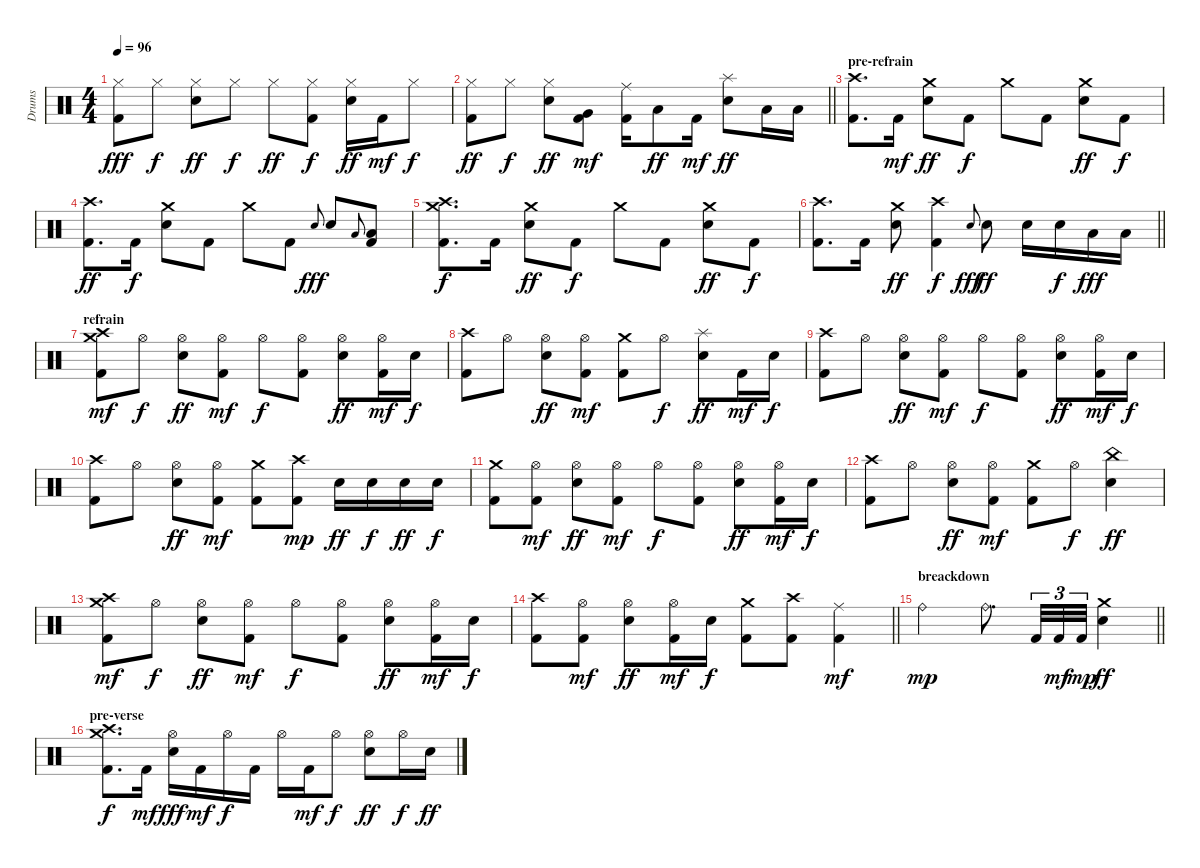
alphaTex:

\track ("Drums" "Drums") {instrument percussion}
\staff {score}
\articulation defaults
\ts (4 4)
\tempo 96
\clef neutral
\ks c
("Hi-Hat (closed)" "Kick (hit) 2").8{dy fff} "Hi-Hat (closed)".8{dy f} ("Hi-Hat (closed)" "Electric Snare (hit)").8{dy ff} "Hi-Hat (closed)".8{dy f} "Hi-Hat (closed)".8{dy ff} ("Hi-Hat (closed)" "Kick (hit) 2").8{dy f} ("Hi-Hat (closed)" "Electric Snare (hit)").16{dy ff} "Kick (hit) 2".16{dy mf} "Hi-Hat (closed)".8{dy f} |
\barLineRight lightlight
("Hi-Hat (closed)" "Kick (hit) 2").8{dy ff} "Hi-Hat (closed)".8{dy f} ("Hi-Hat (closed)" "Electric Snare (hit)").8{dy ff} ("Very Low Tom (hit)" "Kick (hit) 2").8{dy mf} ("Ride (middle)" "Kick (hit) 2").16 "Low Tom (hit)".8{dy ff} "Kick (hit) 2".16{dy mf} ("Splash (hit)" "Electric Snare (hit)").8{dy ff} "Low Tom (hit)".16 "Low Tom (hit)".16 |
\section ("" "pre-refrain")
("Crash high (hit)" "Kick (hit) 2").8{d} "Kick (hit) 2".16{dy mf} ("Crash medium (hit)" "Electric Snare (hit)").8{dy ff} "Kick (hit) 2".8{dy f} "Crash medium (hit)".8 "Kick (hit) 2".8 ("Crash medium (hit)" "Electric Snare (hit)").8{dy ff} "Kick (hit) 2".8{dy f} |
("Crash high (hit)" "Kick (hit) 2").8{d dy ff} "Kick (hit) 2".16{dy f} ("Crash medium (hit)" "Electric Snare (hit)").8 "Kick (hit) 2".8 "Crash medium (hit)".8 "Kick (hit) 2".8 "Snare (hit) 2"{x}.8{gr onbeat dy fff} "Electric Snare (hit)".8 "Low Tom (hit)".8{gr onbeat} ("Low Tom (hit)" "Kick (hit) 2").8 |
("Crash medium (hit)" "Crash high (hit)" "Kick (hit) 2").8{d dy f} "Kick (hit) 2".16 ("Crash medium (hit)" "Electric Snare (hit)").8{dy ff} "Kick (hit) 2".8{dy f} "Crash medium (hit)".8 "Kick (hit) 2".8 ("Crash medium (hit)" "Electric Snare (hit)").8{dy ff} "Kick (hit) 2".8{dy f} |
\barLineRight lightlight
("Crash high (hit)" "Kick (hit) 2").8{d} "Kick (hit) 2".16 ("Crash medium (hit)" "Electric Snare (hit)").8{dy ff} ("Crash high (hit)" "Kick (hit) 2").4{dy f} "Electric Snare (hit)".8{gr onbeat dy fff} "Electric Snare (hit)".8{dy ff} "Electric Snare (hit)".16 "Electric Snare (hit)".16{dy f} "Low Tom (hit)".16{dy fff} "Low Tom (hit)".16 |
\section ("" "refrain")
("Crash medium (hit)" "Crash high (hit)" "Kick (hit) 2").8{dy mf} "Hi-Hat (open)".8{dy f} ("Hi-Hat (open)" "Electric Snare (hit)").8{dy ff} ("Hi-Hat (open)" "Kick (hit) 2").8{dy mf} "Hi-Hat (open)".8{dy f} ("Hi-Hat (open)" "Kick (hit) 2").8 ("Hi-Hat (open)" "Electric Snare (hit)").8{dy ff} ("Hi-Hat (open)" "Kick (hit) 2").16{dy mf} "Electric Snare (hit)".16{dy f} |
("Crash high (hit)" "Kick (hit) 2").8 "Hi-Hat (open)".8 ("Hi-Hat (open)" "Electric Snare (hit)").8{dy ff} ("Hi-Hat (open)" "Kick (hit) 2").8{dy mf} ("Crash medium (hit)" "Kick (hit) 2").8 "Hi-Hat (open)".8{dy f} ("Splash (hit)" "Electric Snare (hit)").8{dy ff} "Kick (hit) 2".16{dy mf} "Electric Snare (hit)".16{dy f} |
("Crash high (hit)" "Kick (hit) 2").8 "Hi-Hat (open)".8 ("Hi-Hat (open)" "Electric Snare (hit)").8{dy ff} ("Hi-Hat (open)" "Kick (hit) 2").8{dy mf} "Hi-Hat (open)".8{dy f} ("Hi-Hat (open)" "Kick (hit) 2").8 ("Hi-Hat (open)" "Electric Snare (hit)").8{dy ff} ("Hi-Hat (open)" "Kick (hit) 2").16{dy mf} "Electric Snare (hit)".16{dy f} |
("Crash high (hit)" "Kick (hit) 2").8 "Hi-Hat (open)".8 ("Hi-Hat (open)" "Electric Snare (hit)").8{dy ff} ("Hi-Hat (open)" "Kick (hit) 2").8{dy mf} ("Crash medium (hit)" "Kick (hit) 2").8 ("Crash high (hit)" "Kick (hit) 2").8{dy mp} "Electric Snare (hit)".16{dy ff} "Electric Snare (hit)".16{dy f} "Electric Snare (hit)".16{dy ff} "Electric Snare (hit)".16{dy f} |
("Crash medium (hit)" "Kick (hit) 2").8 ("Hi-Hat (open)" "Kick (hit) 2").8{dy mf} ("Hi-Hat (open)" "Electric Snare (hit)").8{dy ff} ("Hi-Hat (open)" "Kick (hit) 2").8{dy mf} "Hi-Hat (open)".8{dy f} ("Hi-Hat (open)" "Kick (hit) 2").8 ("Hi-Hat (open)" "Electric Snare (hit)").8{dy ff} ("Hi-Hat (open)" "Kick (hit) 2").16{dy mf} "Electric Snare (hit)".16{dy f} |
("Crash high (hit)" "Kick (hit) 2").8 "Hi-Hat (open)".8 ("Hi-Hat (open)" "Electric Snare (hit)").8{dy ff} ("Hi-Hat (open)" "Kick (hit) 2").8{dy mf} ("Crash medium (hit)" "Kick (hit) 2").8 "Hi-Hat (open)".8{dy f} ("China (hit)" "Electric Snare (hit)").4{dy ff} |
("Crash medium (hit)" "Crash high (hit)" "Kick (hit) 2").8{dy mf} "Hi-Hat (open)".8{dy f} ("Hi-Hat (open)" "Electric Snare (hit)").8{dy ff} ("Hi-Hat (open)" "Kick (hit) 2").8{dy mf} "Hi-Hat (open)".8{dy f} ("Hi-Hat (open)" "Kick (hit) 2").8 ("Hi-Hat (open)" "Electric Snare (hit)").8{dy ff} ("Hi-Hat (open)" "Kick (hit) 2").16{dy mf} "Electric Snare (hit)".16{dy f} |
\barLineRight lightlight
("Crash high (hit)" "Kick (hit) 2").8 ("Hi-Hat (open)" "Kick (hit) 2").8{dy mf} ("Hi-Hat (open)" "Electric Snare (hit)").8{dy ff} ("Hi-Hat (open)" "Kick (hit) 2").16{dy mf} "Electric Snare (hit)".16{dy f} ("Crash medium (hit)" "Kick (hit) 2").8 ("Crash high (hit)" "Kick (hit) 2").8 ("Ride (middle)" "Kick (hit) 2").4{dy mf} |
\section ("" "breackdown")
\barLineRight lightlight "Ride (bell)".2{dy mp} "Ride (bell)".8{d} "Kick (hit) 2".32{tu (3 2)} "Kick (hit) 2".32{tu (3 2) dy mf} "Kick (hit) 2".32{tu (3 2) dy mp}
("Crash medium (hit)" "Electric Snare (hit)").4{dy ff} |
\section ("" "pre-verse")
("Crash medium (hit)" "Crash high (hit)" "Kick (hit) 2").8{d dy f} "Kick (hit) 2".16{dy mf} ("Hi-Hat (open)" "Electric Snare (hit)").16{dy fff} "Kick (hit) 2".16{dy mf} "Hi-Hat (open)".16{dy f} "Kick (hit) 2".16 "Hi-Hat (open)".16 "Kick (hit) 2".16{dy mf} "Hi-Hat (open)".8{dy f} ("Hi-Hat (open)" "Electric Snare (hit)").8{dy ff} "Hi-Hat (open)".16{dy f} "Electric Snare (hit)".16{dy ff}
